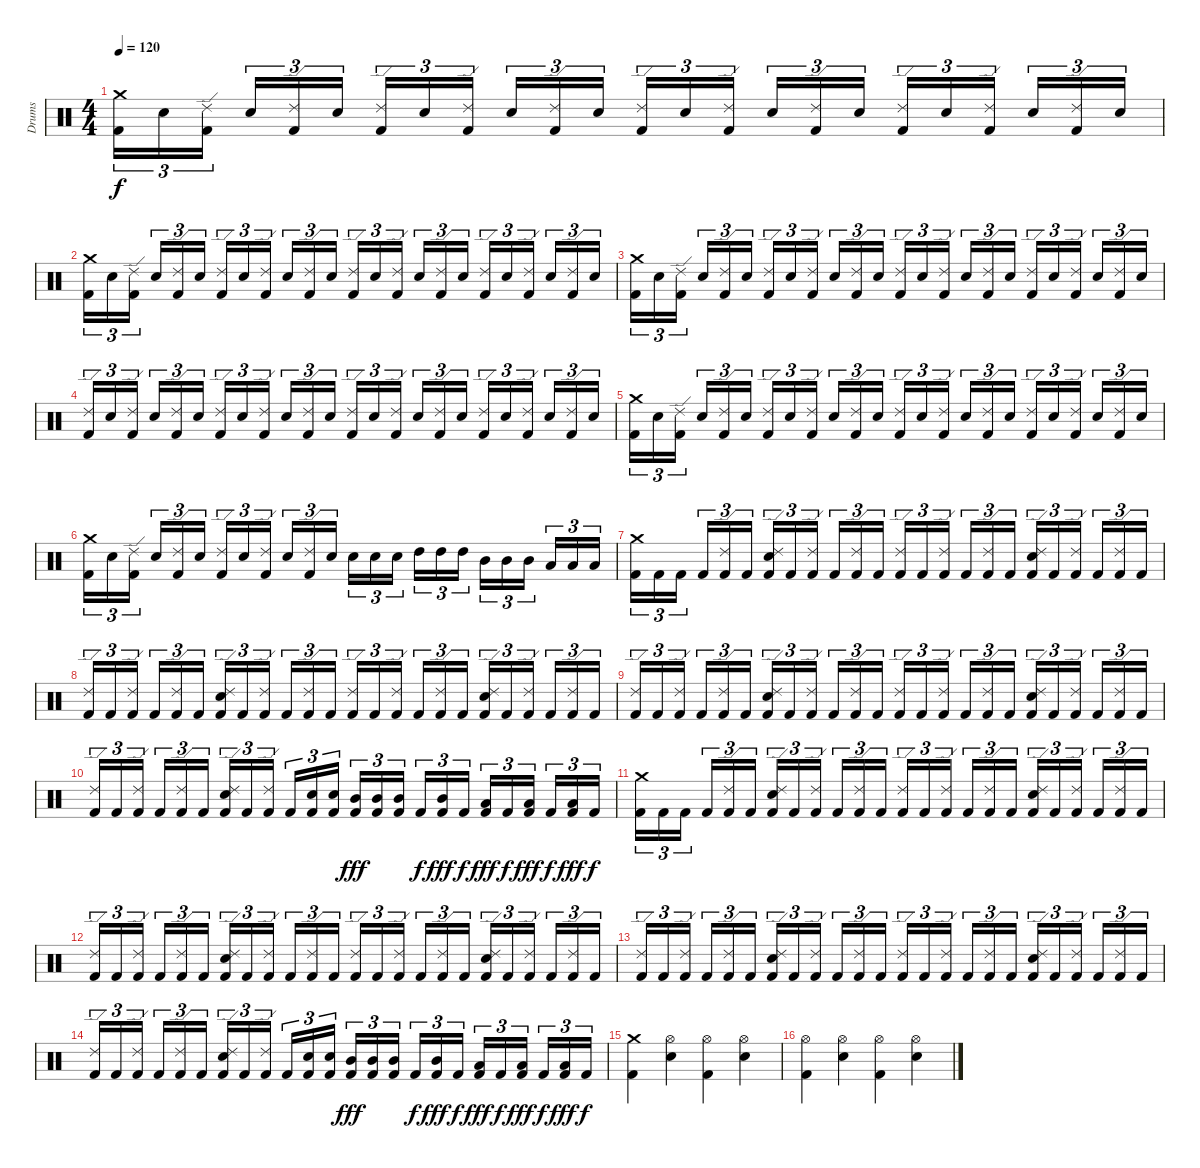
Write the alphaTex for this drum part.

\track ("Drums" "Drums") {instrument percussion}
\staff {score}
\articulation defaults
\ts (4 4)
\tempo 120
\clef neutral
\ks c
("Kick (hit) 2" "Crash medium (hit)").16{tu (3 2) dy f} "Snare (hit) 2".16{tu (3 2)} ("Kick (hit) 2" "Ride (edge) 2").16{tu (3 2)} "Snare (hit) 2".16{tu (3 2)} ("Kick (hit) 2" "Ride (edge) 2").16{tu (3 2)} "Snare (hit) 2".16{tu (3 2)} ("Kick (hit) 2" "Ride (edge) 2").16{tu (3 2)} "Snare (hit) 2".16{tu (3 2)} ("Kick (hit) 2" "Ride (edge) 2").16{tu (3 2)} "Snare (hit) 2".16{tu (3 2)} ("Kick (hit) 2" "Ride (edge) 2").16{tu (3 2)} "Snare (hit) 2".16{tu (3 2)} ("Kick (hit) 2" "Ride (edge) 2").16{tu (3 2)} "Snare (hit) 2".16{tu (3 2)} ("Kick (hit) 2" "Ride (edge) 2").16{tu (3 2)} "Snare (hit) 2".16{tu (3 2)} ("Kick (hit) 2" "Ride (edge) 2").16{tu (3 2)} "Snare (hit) 2".16{tu (3 2)} ("Kick (hit) 2" "Ride (edge) 2").16{tu (3 2)} "Snare (hit) 2".16{tu (3 2)} ("Kick (hit) 2" "Ride (edge) 2").16{tu (3 2)} "Snare (hit) 2".16{tu (3 2)} ("Kick (hit) 2" "Ride (edge) 2").16{tu (3 2)} "Snare (hit) 2".16{tu (3 2)} |
("Kick (hit) 2" "Crash medium (hit)").16{tu (3 2)} "Snare (hit) 2".16{tu (3 2)} ("Kick (hit) 2" "Ride (edge) 2").16{tu (3 2)} "Snare (hit) 2".16{tu (3 2)} ("Kick (hit) 2" "Ride (edge) 2").16{tu (3 2)} "Snare (hit) 2".16{tu (3 2)} ("Kick (hit) 2" "Ride (edge) 2").16{tu (3 2)} "Snare (hit) 2".16{tu (3 2)} ("Kick (hit) 2" "Ride (edge) 2").16{tu (3 2)} "Snare (hit) 2".16{tu (3 2)} ("Kick (hit) 2" "Ride (edge) 2").16{tu (3 2)} "Snare (hit) 2".16{tu (3 2)} ("Kick (hit) 2" "Ride (edge) 2").16{tu (3 2)} "Snare (hit) 2".16{tu (3 2)} ("Kick (hit) 2" "Ride (edge) 2").16{tu (3 2)} "Snare (hit) 2".16{tu (3 2)} ("Kick (hit) 2" "Ride (edge) 2").16{tu (3 2)} "Snare (hit) 2".16{tu (3 2)} ("Kick (hit) 2" "Ride (edge) 2").16{tu (3 2)} "Snare (hit) 2".16{tu (3 2)} ("Kick (hit) 2" "Ride (edge) 2").16{tu (3 2)} "Snare (hit) 2".16{tu (3 2)} ("Kick (hit) 2" "Ride (edge) 2").16{tu (3 2)} "Snare (hit) 2".16{tu (3 2)} |
("Kick (hit) 2" "Crash medium (hit)").16{tu (3 2)} "Snare (hit) 2".16{tu (3 2)} ("Kick (hit) 2" "Ride (edge) 2").16{tu (3 2)} "Snare (hit) 2".16{tu (3 2)} ("Kick (hit) 2" "Ride (edge) 2").16{tu (3 2)} "Snare (hit) 2".16{tu (3 2)} ("Kick (hit) 2" "Ride (edge) 2").16{tu (3 2)} "Snare (hit) 2".16{tu (3 2)} ("Kick (hit) 2" "Ride (edge) 2").16{tu (3 2)} "Snare (hit) 2".16{tu (3 2)} ("Kick (hit) 2" "Ride (edge) 2").16{tu (3 2)} "Snare (hit) 2".16{tu (3 2)} ("Kick (hit) 2" "Ride (edge) 2").16{tu (3 2)} "Snare (hit) 2".16{tu (3 2)} ("Kick (hit) 2" "Ride (edge) 2").16{tu (3 2)} "Snare (hit) 2".16{tu (3 2)} ("Kick (hit) 2" "Ride (edge) 2").16{tu (3 2)} "Snare (hit) 2".16{tu (3 2)} ("Kick (hit) 2" "Ride (edge) 2").16{tu (3 2)} "Snare (hit) 2".16{tu (3 2)} ("Kick (hit) 2" "Ride (edge) 2").16{tu (3 2)} "Snare (hit) 2".16{tu (3 2)} ("Kick (hit) 2" "Ride (edge) 2").16{tu (3 2)} "Snare (hit) 2".16{tu (3 2)} |
("Kick (hit) 2" "Ride (edge) 2").16{tu (3 2)} "Snare (hit) 2".16{tu (3 2)} ("Kick (hit) 2" "Ride (edge) 2").16{tu (3 2)} "Snare (hit) 2".16{tu (3 2)} ("Kick (hit) 2" "Ride (edge) 2").16{tu (3 2)} "Snare (hit) 2".16{tu (3 2)} ("Kick (hit) 2" "Ride (edge) 2").16{tu (3 2)} "Snare (hit) 2".16{tu (3 2)} ("Kick (hit) 2" "Ride (edge) 2").16{tu (3 2)} "Snare (hit) 2".16{tu (3 2)} ("Kick (hit) 2" "Ride (edge) 2").16{tu (3 2)} "Snare (hit) 2".16{tu (3 2)} ("Kick (hit) 2" "Ride (edge) 2").16{tu (3 2)} "Snare (hit) 2".16{tu (3 2)} ("Kick (hit) 2" "Ride (edge) 2").16{tu (3 2)} "Snare (hit) 2".16{tu (3 2)} ("Kick (hit) 2" "Ride (edge) 2").16{tu (3 2)} "Snare (hit) 2".16{tu (3 2)} ("Kick (hit) 2" "Ride (edge) 2").16{tu (3 2)} "Snare (hit) 2".16{tu (3 2)} ("Kick (hit) 2" "Ride (edge) 2").16{tu (3 2)} "Snare (hit) 2".16{tu (3 2)} ("Kick (hit) 2" "Ride (edge) 2").16{tu (3 2)} "Snare (hit) 2".16{tu (3 2)} |
("Kick (hit) 2" "Crash medium (hit)").16{tu (3 2)} "Snare (hit) 2".16{tu (3 2)} ("Kick (hit) 2" "Ride (edge) 2").16{tu (3 2)} "Snare (hit) 2".16{tu (3 2)} ("Kick (hit) 2" "Ride (edge) 2").16{tu (3 2)} "Snare (hit) 2".16{tu (3 2)} ("Kick (hit) 2" "Ride (edge) 2").16{tu (3 2)} "Snare (hit) 2".16{tu (3 2)} ("Kick (hit) 2" "Ride (edge) 2").16{tu (3 2)} "Snare (hit) 2".16{tu (3 2)} ("Kick (hit) 2" "Ride (edge) 2").16{tu (3 2)} "Snare (hit) 2".16{tu (3 2)} ("Kick (hit) 2" "Ride (edge) 2").16{tu (3 2)} "Snare (hit) 2".16{tu (3 2)} ("Kick (hit) 2" "Ride (edge) 2").16{tu (3 2)} "Snare (hit) 2".16{tu (3 2)} ("Kick (hit) 2" "Ride (edge) 2").16{tu (3 2)} "Snare (hit) 2".16{tu (3 2)} ("Kick (hit) 2" "Ride (edge) 2").16{tu (3 2)} "Snare (hit) 2".16{tu (3 2)} ("Kick (hit) 2" "Ride (edge) 2").16{tu (3 2)} "Snare (hit) 2".16{tu (3 2)} ("Kick (hit) 2" "Ride (edge) 2").16{tu (3 2)} "Snare (hit) 2".16{tu (3 2)} |
("Kick (hit) 2" "Crash medium (hit)").16{tu (3 2)} "Snare (hit) 2".16{tu (3 2)} ("Kick (hit) 2" "Ride (edge) 2").16{tu (3 2)} "Snare (hit) 2".16{tu (3 2)} ("Kick (hit) 2" "Ride (edge) 2").16{tu (3 2)} "Snare (hit) 2".16{tu (3 2)} ("Kick (hit) 2" "Ride (edge) 2").16{tu (3 2)} "Snare (hit) 2".16{tu (3 2)} ("Kick (hit) 2" "Ride (edge) 2").16{tu (3 2)} "Snare (hit) 2".16{tu (3 2)} ("Kick (hit) 2" "Ride (edge) 2").16{tu (3 2)} "Snare (hit) 2".16{tu (3 2)} "Snare (hit) 2".16{tu (3 2)} "Snare (hit) 2".16{tu (3 2)} "Snare (hit) 2".16{tu (3 2)} "High Tom (hit)".16{tu (3 2)} "High Tom (hit)".16{tu (3 2)} "High Tom (hit)".16{tu (3 2)} "Mid Tom (hit)".16{tu (3 2)} "Mid Tom (hit)".16{tu (3 2)} "Mid Tom (hit)".16{tu (3 2)} "Low Tom (hit)".16{tu (3 2)} "Low Tom (hit)".16{tu (3 2)} "Low Tom (hit)".16{tu (3 2)} |
("Kick (hit) 2" "Crash medium (hit)").16{tu (3 2)} "Kick (hit) 2".16{tu (3 2)} "Kick (hit) 2".16{tu (3 2)} "Kick (hit) 2".16{tu (3 2)} ("Kick (hit) 2" "Ride (edge) 2").16{tu (3 2)} "Kick (hit) 2".16{tu (3 2)} ("Kick (hit) 2" "Electric Snare (hit)" "Ride (edge) 2").16{tu (3 2)} "Kick (hit) 2".16{tu (3 2)} ("Kick (hit) 2" "Ride (edge) 2").16{tu (3 2)} "Kick (hit) 2".16{tu (3 2)} ("Kick (hit) 2" "Ride (edge) 2").16{tu (3 2)} "Kick (hit) 2".16{tu (3 2)} ("Kick (hit) 2" "Ride (edge) 2").16{tu (3 2)} "Kick (hit) 2".16{tu (3 2)} ("Kick (hit) 2" "Ride (edge) 2").16{tu (3 2)} "Kick (hit) 2".16{tu (3 2)} ("Kick (hit) 2" "Ride (edge) 2").16{tu (3 2)} "Kick (hit) 2".16{tu (3 2)} ("Kick (hit) 2" "Electric Snare (hit)" "Ride (edge) 2").16{tu (3 2)} "Kick (hit) 2".16{tu (3 2)} ("Kick (hit) 2" "Ride (edge) 2").16{tu (3 2)} "Kick (hit) 2".16{tu (3 2)} ("Kick (hit) 2" "Ride (edge) 2").16{tu (3 2)} "Kick (hit) 2".16{tu (3 2)} |
("Kick (hit) 2" "Ride (edge) 2").16{tu (3 2)} "Kick (hit) 2".16{tu (3 2)} ("Kick (hit) 2" "Ride (edge) 2").16{tu (3 2)} "Kick (hit) 2".16{tu (3 2)} ("Kick (hit) 2" "Ride (edge) 2").16{tu (3 2)} "Kick (hit) 2".16{tu (3 2)} ("Kick (hit) 2" "Electric Snare (hit)" "Ride (edge) 2").16{tu (3 2)} "Kick (hit) 2".16{tu (3 2)} ("Kick (hit) 2" "Ride (edge) 2").16{tu (3 2)} "Kick (hit) 2".16{tu (3 2)} ("Kick (hit) 2" "Ride (edge) 2").16{tu (3 2)} "Kick (hit) 2".16{tu (3 2)} ("Kick (hit) 2" "Ride (edge) 2").16{tu (3 2)} "Kick (hit) 2".16{tu (3 2)} ("Kick (hit) 2" "Ride (edge) 2").16{tu (3 2)} "Kick (hit) 2".16{tu (3 2)} ("Kick (hit) 2" "Ride (edge) 2").16{tu (3 2)} "Kick (hit) 2".16{tu (3 2)} ("Kick (hit) 2" "Electric Snare (hit)" "Ride (edge) 2").16{tu (3 2)} "Kick (hit) 2".16{tu (3 2)} ("Kick (hit) 2" "Ride (edge) 2").16{tu (3 2)} "Kick (hit) 2".16{tu (3 2)} ("Kick (hit) 2" "Ride (edge) 2").16{tu (3 2)} "Kick (hit) 2".16{tu (3 2)} |
("Kick (hit) 2" "Ride (edge) 2").16{tu (3 2)} "Kick (hit) 2".16{tu (3 2)} ("Kick (hit) 2" "Ride (edge) 2").16{tu (3 2)} "Kick (hit) 2".16{tu (3 2)} ("Kick (hit) 2" "Ride (edge) 2").16{tu (3 2)} "Kick (hit) 2".16{tu (3 2)} ("Kick (hit) 2" "Electric Snare (hit)" "Ride (edge) 2").16{tu (3 2)} "Kick (hit) 2".16{tu (3 2)} ("Kick (hit) 2" "Ride (edge) 2").16{tu (3 2)} "Kick (hit) 2".16{tu (3 2)} ("Kick (hit) 2" "Ride (edge) 2").16{tu (3 2)} "Kick (hit) 2".16{tu (3 2)} ("Kick (hit) 2" "Ride (edge) 2").16{tu (3 2)} "Kick (hit) 2".16{tu (3 2)} ("Kick (hit) 2" "Ride (edge) 2").16{tu (3 2)} "Kick (hit) 2".16{tu (3 2)} ("Kick (hit) 2" "Ride (edge) 2").16{tu (3 2)} "Kick (hit) 2".16{tu (3 2)} ("Kick (hit) 2" "Electric Snare (hit)" "Ride (edge) 2").16{tu (3 2)} "Kick (hit) 2".16{tu (3 2)} ("Kick (hit) 2" "Ride (edge) 2").16{tu (3 2)} "Kick (hit) 2".16{tu (3 2)} ("Kick (hit) 2" "Ride (edge) 2").16{tu (3 2)} "Kick (hit) 2".16{tu (3 2)} |
("Kick (hit) 2" "Ride (edge) 2").16{tu (3 2)} "Kick (hit) 2".16{tu (3 2)} ("Kick (hit) 2" "Ride (edge) 2").16{tu (3 2)} "Kick (hit) 2".16{tu (3 2)} ("Kick (hit) 2" "Ride (edge) 2").16{tu (3 2)} "Kick (hit) 2".16{tu (3 2)} ("Kick (hit) 2" "Electric Snare (hit)" "Ride (edge) 2").16{tu (3 2)} "Kick (hit) 2".16{tu (3 2)} ("Kick (hit) 2" "Ride (edge) 2").16{tu (3 2)} "Kick (hit) 2".16{tu (3 2)} ("Kick (hit) 2" "Electric Snare (hit)").16{tu (3 2)} ("Kick (hit) 2" "Electric Snare (hit)").16{tu (3 2)} ("Kick (hit) 2" "Mid Tom (hit)").16{tu (3 2) dy fff} ("Kick (hit) 2" "Mid Tom (hit)").16{tu (3 2)} ("Kick (hit) 2" "Mid Tom (hit)").16{tu (3 2)} "Kick (hit) 2".16{tu (3 2) dy f} ("Kick (hit) 2" "Mid Tom (hit)").16{tu (3 2) dy fff} "Kick (hit) 2".16{tu (3 2) dy f} ("Kick (hit) 2" "Low Tom (hit)").16{tu (3 2) dy fff} "Kick (hit) 2".16{tu (3 2) dy f} ("Kick (hit) 2" "Low Tom (hit)").16{tu (3 2) dy fff} "Kick (hit) 2".16{tu (3 2) dy f} ("Kick (hit) 2" "Low Tom (hit)").16{tu (3 2) dy fff} "Kick (hit) 2".16{tu (3 2) dy f} |
("Kick (hit) 2" "Crash medium (hit)").16{tu (3 2)} "Kick (hit) 2".16{tu (3 2)} "Kick (hit) 2".16{tu (3 2)} "Kick (hit) 2".16{tu (3 2)} ("Kick (hit) 2" "Ride (edge) 2").16{tu (3 2)} "Kick (hit) 2".16{tu (3 2)} ("Kick (hit) 2" "Electric Snare (hit)" "Ride (edge) 2").16{tu (3 2)} "Kick (hit) 2".16{tu (3 2)} ("Kick (hit) 2" "Ride (edge) 2").16{tu (3 2)} "Kick (hit) 2".16{tu (3 2)} ("Kick (hit) 2" "Ride (edge) 2").16{tu (3 2)} "Kick (hit) 2".16{tu (3 2)} ("Kick (hit) 2" "Ride (edge) 2").16{tu (3 2)} "Kick (hit) 2".16{tu (3 2)} ("Kick (hit) 2" "Ride (edge) 2").16{tu (3 2)} "Kick (hit) 2".16{tu (3 2)} ("Kick (hit) 2" "Ride (edge) 2").16{tu (3 2)} "Kick (hit) 2".16{tu (3 2)} ("Kick (hit) 2" "Electric Snare (hit)" "Ride (edge) 2").16{tu (3 2)} "Kick (hit) 2".16{tu (3 2)} ("Kick (hit) 2" "Ride (edge) 2").16{tu (3 2)} "Kick (hit) 2".16{tu (3 2)} ("Kick (hit) 2" "Ride (edge) 2").16{tu (3 2)} "Kick (hit) 2".16{tu (3 2)} |
("Kick (hit) 2" "Ride (edge) 2").16{tu (3 2)} "Kick (hit) 2".16{tu (3 2)} ("Kick (hit) 2" "Ride (edge) 2").16{tu (3 2)} "Kick (hit) 2".16{tu (3 2)} ("Kick (hit) 2" "Ride (edge) 2").16{tu (3 2)} "Kick (hit) 2".16{tu (3 2)} ("Kick (hit) 2" "Electric Snare (hit)" "Ride (edge) 2").16{tu (3 2)} "Kick (hit) 2".16{tu (3 2)} ("Kick (hit) 2" "Ride (edge) 2").16{tu (3 2)} "Kick (hit) 2".16{tu (3 2)} ("Kick (hit) 2" "Ride (edge) 2").16{tu (3 2)} "Kick (hit) 2".16{tu (3 2)} ("Kick (hit) 2" "Ride (edge) 2").16{tu (3 2)} "Kick (hit) 2".16{tu (3 2)} ("Kick (hit) 2" "Ride (edge) 2").16{tu (3 2)} "Kick (hit) 2".16{tu (3 2)} ("Kick (hit) 2" "Ride (edge) 2").16{tu (3 2)} "Kick (hit) 2".16{tu (3 2)} ("Kick (hit) 2" "Electric Snare (hit)" "Ride (edge) 2").16{tu (3 2)} "Kick (hit) 2".16{tu (3 2)} ("Kick (hit) 2" "Ride (edge) 2").16{tu (3 2)} "Kick (hit) 2".16{tu (3 2)} ("Kick (hit) 2" "Ride (edge) 2").16{tu (3 2)} "Kick (hit) 2".16{tu (3 2)} |
("Kick (hit) 2" "Ride (edge) 2").16{tu (3 2)} "Kick (hit) 2".16{tu (3 2)} ("Kick (hit) 2" "Ride (edge) 2").16{tu (3 2)} "Kick (hit) 2".16{tu (3 2)} ("Kick (hit) 2" "Ride (edge) 2").16{tu (3 2)} "Kick (hit) 2".16{tu (3 2)} ("Kick (hit) 2" "Electric Snare (hit)" "Ride (edge) 2").16{tu (3 2)} "Kick (hit) 2".16{tu (3 2)} ("Kick (hit) 2" "Ride (edge) 2").16{tu (3 2)} "Kick (hit) 2".16{tu (3 2)} ("Kick (hit) 2" "Ride (edge) 2").16{tu (3 2)} "Kick (hit) 2".16{tu (3 2)} ("Kick (hit) 2" "Ride (edge) 2").16{tu (3 2)} "Kick (hit) 2".16{tu (3 2)} ("Kick (hit) 2" "Ride (edge) 2").16{tu (3 2)} "Kick (hit) 2".16{tu (3 2)} ("Kick (hit) 2" "Ride (edge) 2").16{tu (3 2)} "Kick (hit) 2".16{tu (3 2)} ("Kick (hit) 2" "Electric Snare (hit)" "Ride (edge) 2").16{tu (3 2)} "Kick (hit) 2".16{tu (3 2)} ("Kick (hit) 2" "Ride (edge) 2").16{tu (3 2)} "Kick (hit) 2".16{tu (3 2)} ("Kick (hit) 2" "Ride (edge) 2").16{tu (3 2)} "Kick (hit) 2".16{tu (3 2)} |
("Kick (hit) 2" "Ride (edge) 2").16{tu (3 2)} "Kick (hit) 2".16{tu (3 2)} ("Kick (hit) 2" "Ride (edge) 2").16{tu (3 2)} "Kick (hit) 2".16{tu (3 2)} ("Kick (hit) 2" "Ride (edge) 2").16{tu (3 2)} "Kick (hit) 2".16{tu (3 2)} ("Kick (hit) 2" "Electric Snare (hit)" "Ride (edge) 2").16{tu (3 2)} "Kick (hit) 2".16{tu (3 2)} ("Kick (hit) 2" "Ride (edge) 2").16{tu (3 2)} "Kick (hit) 2".16{tu (3 2)} ("Kick (hit) 2" "Electric Snare (hit)").16{tu (3 2)} ("Kick (hit) 2" "Electric Snare (hit)").16{tu (3 2)} ("Kick (hit) 2" "Mid Tom (hit)").16{tu (3 2) dy fff} ("Kick (hit) 2" "Mid Tom (hit)").16{tu (3 2)} ("Kick (hit) 2" "Mid Tom (hit)").16{tu (3 2)} "Kick (hit) 2".16{tu (3 2) dy f} ("Kick (hit) 2" "Mid Tom (hit)").16{tu (3 2) dy fff} "Kick (hit) 2".16{tu (3 2) dy f} ("Kick (hit) 2" "Low Tom (hit)").16{tu (3 2) dy fff} "Kick (hit) 2".16{tu (3 2) dy f} ("Kick (hit) 2" "Low Tom (hit)").16{tu (3 2) dy fff} "Kick (hit) 2".16{tu (3 2) dy f} ("Kick (hit) 2" "Low Tom (hit)").16{tu (3 2) dy fff} "Kick (hit) 2".16{tu (3 2) dy f} |
("Kick (hit) 2" "Crash medium (hit)").4 ("Electric Snare (hit)" "Hi-Hat (open)").4 ("Kick (hit) 2" "Hi-Hat (open)").4 ("Electric Snare (hit)" "Hi-Hat (open)").4 |
("Kick (hit) 2" "Hi-Hat (open)").4 ("Electric Snare (hit)" "Hi-Hat (open)").4 ("Kick (hit) 2" "Hi-Hat (open)").4 ("Electric Snare (hit)" "Hi-Hat (open)").4
